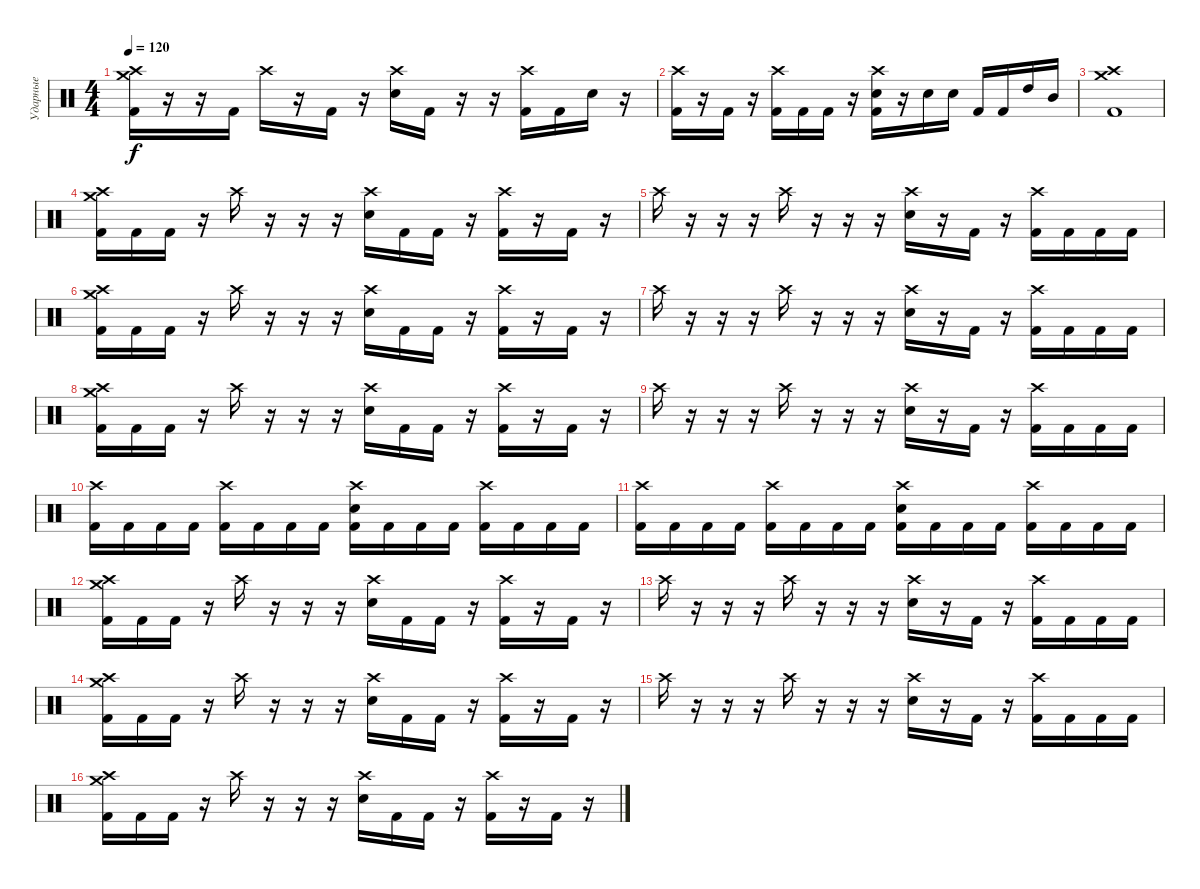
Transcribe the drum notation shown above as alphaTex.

\track ("Ударные" "Ударные") {instrument percussion}
\staff {score}
\articulation defaults
\ts (4 4)
\tempo 120
\clef neutral
\ks c
("Crash high (hit)" "Crash medium (hit)" "Kick (hit) 2").16{dy f} r.16 r.16 "Kick (hit) 2".16 "Crash high (hit)".16 r.16 "Kick (hit) 2".16 r.16 ("Crash high (hit)" "Electric Snare (hit)").16 "Kick (hit) 2".16 r.16 r.16 ("Crash high (hit)" "Kick (hit) 2").16 "Kick (hit) 2".16 "Electric Snare (hit)".16 r.16 |
("Crash high (hit)" "Kick (hit) 2").16 r.16 "Kick (hit) 2".16 r.16 ("Crash high (hit)" "Kick (hit) 2").16 "Kick (hit) 2".16 "Kick (hit) 2".16 r.16 ("Crash high (hit)" "Electric Snare (hit)" "Kick (hit) 2").16 r.16 "Electric Snare (hit)".16 "Electric Snare (hit)".16 "Kick (hit) 2".16 "Kick (hit) 2".16 "High Tom (hit)".16 "Mid Tom (hit)".16 |
("Crash medium (hit)" "Crash high (hit)" "Kick (hit) 2").1 |
("Crash high (hit)" "Crash medium (hit)" "Kick (hit) 2").16 "Kick (hit) 2".16 "Kick (hit) 2".16 r.16 "Crash high (hit)".16 r.16 r.16 r.16 ("Crash high (hit)" "Electric Snare (hit)").16 "Kick (hit) 2".16 "Kick (hit) 2".16 r.16 ("Crash high (hit)" "Kick (hit) 2").16 r.16 "Kick (hit) 2".16 r.16 |
"Crash high (hit)".16 r.16 r.16 r.16 "Crash high (hit)".16 r.16 r.16 r.16 ("Crash high (hit)" "Electric Snare (hit)").16 r.16 "Kick (hit) 2".16 r.16 ("Crash high (hit)" "Kick (hit) 2").16 "Kick (hit) 2".16 "Kick (hit) 2".16 "Kick (hit) 2".16 |
("Crash high (hit)" "Crash medium (hit)" "Kick (hit) 2").16 "Kick (hit) 2".16 "Kick (hit) 2".16 r.16 "Crash high (hit)".16 r.16 r.16 r.16 ("Crash high (hit)" "Electric Snare (hit)").16 "Kick (hit) 2".16 "Kick (hit) 2".16 r.16 ("Crash high (hit)" "Kick (hit) 2").16 r.16 "Kick (hit) 2".16 r.16 |
"Crash high (hit)".16 r.16 r.16 r.16 "Crash high (hit)".16 r.16 r.16 r.16 ("Crash high (hit)" "Electric Snare (hit)").16 r.16 "Kick (hit) 2".16 r.16 ("Crash high (hit)" "Kick (hit) 2").16 "Kick (hit) 2".16 "Kick (hit) 2".16 "Kick (hit) 2".16 |
("Crash high (hit)" "Crash medium (hit)" "Kick (hit) 2").16 "Kick (hit) 2".16 "Kick (hit) 2".16 r.16 "Crash high (hit)".16 r.16 r.16 r.16 ("Crash high (hit)" "Electric Snare (hit)").16 "Kick (hit) 2".16 "Kick (hit) 2".16 r.16 ("Crash high (hit)" "Kick (hit) 2").16 r.16 "Kick (hit) 2".16 r.16 |
"Crash high (hit)".16 r.16 r.16 r.16 "Crash high (hit)".16 r.16 r.16 r.16 ("Crash high (hit)" "Electric Snare (hit)").16 r.16 "Kick (hit) 2".16 r.16 ("Crash high (hit)" "Kick (hit) 2").16 "Kick (hit) 2".16 "Kick (hit) 2".16 "Kick (hit) 2".16 |
("Crash high (hit)" "Kick (hit) 2").16 "Kick (hit) 2".16 "Kick (hit) 2".16 "Kick (hit) 2".16 ("Crash high (hit)" "Kick (hit) 2").16 "Kick (hit) 2".16 "Kick (hit) 2".16 "Kick (hit) 2".16 ("Crash high (hit)" "Electric Snare (hit)" "Kick (hit) 2").16 "Kick (hit) 2".16 "Kick (hit) 2".16 "Kick (hit) 2".16 ("Crash high (hit)" "Kick (hit) 2").16 "Kick (hit) 2".16 "Kick (hit) 2".16 "Kick (hit) 2".16 |
("Crash high (hit)" "Kick (hit) 2").16 "Kick (hit) 2".16 "Kick (hit) 2".16 "Kick (hit) 2".16 ("Crash high (hit)" "Kick (hit) 2").16 "Kick (hit) 2".16 "Kick (hit) 2".16 "Kick (hit) 2".16 ("Crash high (hit)" "Electric Snare (hit)" "Kick (hit) 2").16 "Kick (hit) 2".16 "Kick (hit) 2".16 "Kick (hit) 2".16 ("Crash high (hit)" "Kick (hit) 2").16 "Kick (hit) 2".16 "Kick (hit) 2".16 "Kick (hit) 2".16 |
("Crash high (hit)" "Crash medium (hit)" "Kick (hit) 2").16 "Kick (hit) 2".16 "Kick (hit) 2".16 r.16 "Crash high (hit)".16 r.16 r.16 r.16 ("Crash high (hit)" "Electric Snare (hit)").16 "Kick (hit) 2".16 "Kick (hit) 2".16 r.16 ("Crash high (hit)" "Kick (hit) 2").16 r.16 "Kick (hit) 2".16 r.16 |
"Crash high (hit)".16 r.16 r.16 r.16 "Crash high (hit)".16 r.16 r.16 r.16 ("Crash high (hit)" "Electric Snare (hit)").16 r.16 "Kick (hit) 2".16 r.16 ("Crash high (hit)" "Kick (hit) 2").16 "Kick (hit) 2".16 "Kick (hit) 2".16 "Kick (hit) 2".16 |
("Crash high (hit)" "Crash medium (hit)" "Kick (hit) 2").16 "Kick (hit) 2".16 "Kick (hit) 2".16 r.16 "Crash high (hit)".16 r.16 r.16 r.16 ("Crash high (hit)" "Electric Snare (hit)").16 "Kick (hit) 2".16 "Kick (hit) 2".16 r.16 ("Crash high (hit)" "Kick (hit) 2").16 r.16 "Kick (hit) 2".16 r.16 |
"Crash high (hit)".16 r.16 r.16 r.16 "Crash high (hit)".16 r.16 r.16 r.16 ("Crash high (hit)" "Electric Snare (hit)").16 r.16 "Kick (hit) 2".16 r.16 ("Crash high (hit)" "Kick (hit) 2").16 "Kick (hit) 2".16 "Kick (hit) 2".16 "Kick (hit) 2".16 |
("Crash high (hit)" "Crash medium (hit)" "Kick (hit) 2").16 "Kick (hit) 2".16 "Kick (hit) 2".16 r.16 "Crash high (hit)".16 r.16 r.16 r.16 ("Crash high (hit)" "Electric Snare (hit)").16 "Kick (hit) 2".16 "Kick (hit) 2".16 r.16 ("Crash high (hit)" "Kick (hit) 2").16 r.16 "Kick (hit) 2".16 r.16
